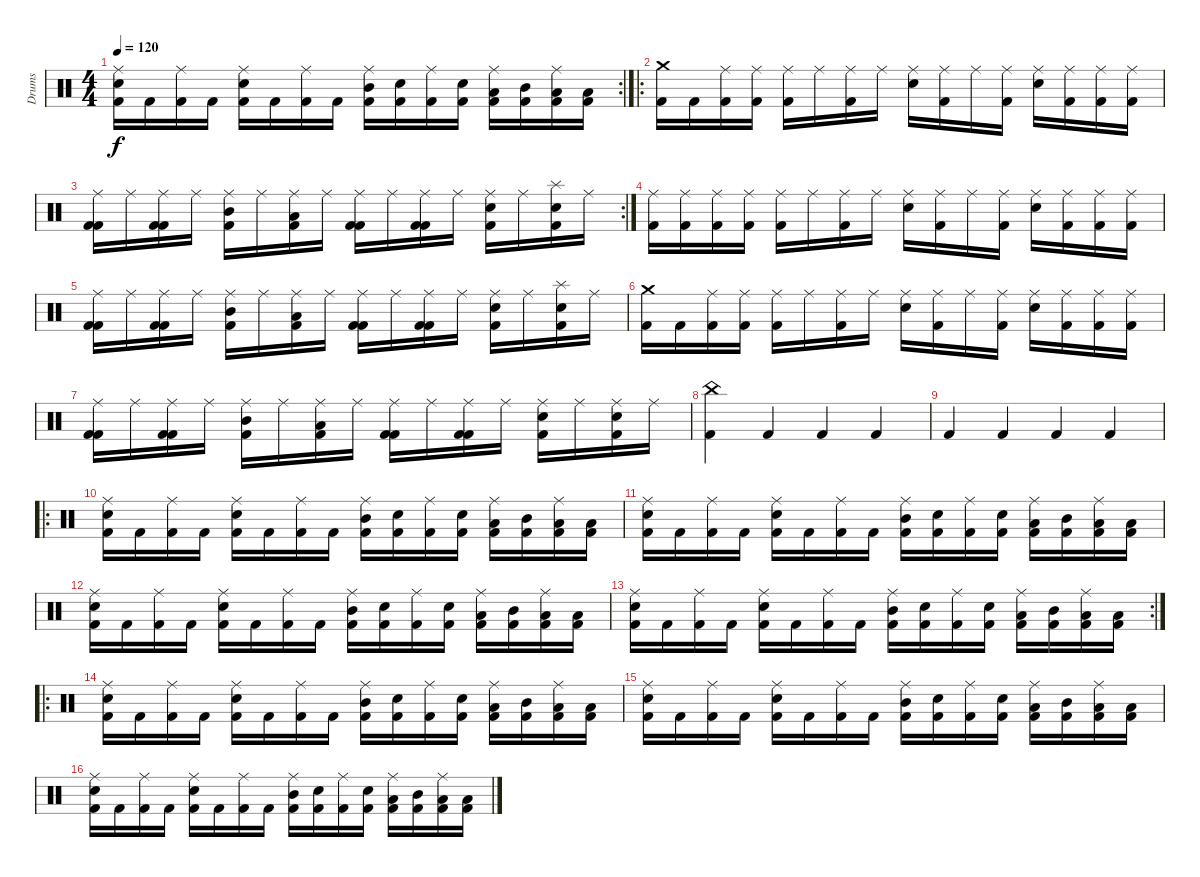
\track ("Drums" "Drums") {instrument percussion}
\staff {score}
\articulation defaults
\rc 2
\ts (4 4)
\tempo 120
\clef neutral
\ks c
("Ride (middle)" "Snare (hit) 2" "Kick (hit) 2").16{dy f} "Kick (hit) 2".16 ("Ride (middle)" "Kick (hit) 2").16 "Kick (hit) 2".16 ("Ride (middle)" "Snare (hit) 2" "Kick (hit) 2").16 "Kick (hit) 2".16 ("Ride (middle)" "Kick (hit) 2").16 "Kick (hit) 2".16 ("Ride (middle)" "Mid Tom (hit)" "Kick (hit) 2").16 ("Snare (hit) 2" "Kick (hit) 2").16 ("Ride (middle)" "Kick (hit) 2").16 ("Snare (hit) 2" "Kick (hit) 2").16 ("Ride (middle)" "Low Floor Tom (hit)" "Kick (hit) 2").16 ("Mid Tom (hit)" "Kick (hit) 2").16 ("Ride (middle)" "Low Tom (hit)" "Kick (hit) 2").16 ("Low Floor Tom (hit)" "Kick (hit) 2").16 |
\ro
("Crash medium (hit)" "Kick (hit) 2").16 "Kick (hit) 2".16 ("Ride (middle)" "Kick (hit) 2").16 ("Ride (middle)" "Kick (hit) 2").16 ("Ride (middle)" "Kick (hit) 2").16 "Ride (middle)".16 ("Ride (middle)" "Kick (hit) 2").16 "Ride (middle)".16 ("Ride (middle)" "Snare (hit) 2").16 ("Ride (middle)" "Kick (hit) 2").16 "Ride (middle)".16 ("Ride (middle)" "Kick (hit) 2").16 ("Ride (middle)" "Snare (hit) 2").16 ("Ride (middle)" "Kick (hit) 2").16 ("Ride (middle)" "Kick (hit) 2").16 ("Ride (middle)" "Kick (hit) 2").16 |
\rc 2
("Ride (middle)" "Kick (hit) 2" "Kick (hit) 2").16 "Ride (middle)".16 ("Ride (middle)" "Kick (hit) 2" "Kick (hit) 2").16 "Ride (middle)".16 ("Ride (middle)" "Kick (hit) 2" "Mid Tom (hit)").16 "Ride (middle)".16 ("Ride (middle)" "Kick (hit) 2" "Low Tom (hit)").16 "Ride (middle)".16 ("Ride (middle)" "Kick (hit) 2" "Kick (hit) 2").16 "Ride (middle)".16 ("Ride (middle)" "Kick (hit) 2" "Kick (hit) 2").16 "Ride (middle)".16 ("Ride (middle)" "Kick (hit) 2" "Snare (hit) 2").16 "Ride (middle)".16 ("Splash (hit)" "Kick (hit) 2" "Snare (hit) 2").16 "Ride (middle)".16 |
("Ride (middle)" "Kick (hit) 2").16 ("Ride (middle)" "Kick (hit) 2").16 ("Ride (middle)" "Kick (hit) 2").16 ("Ride (middle)" "Kick (hit) 2").16 ("Ride (middle)" "Kick (hit) 2").16 "Ride (middle)".16 ("Ride (middle)" "Kick (hit) 2").16 "Ride (middle)".16 ("Ride (middle)" "Snare (hit) 2").16 ("Ride (middle)" "Kick (hit) 2").16 "Ride (middle)".16 ("Ride (middle)" "Kick (hit) 2").16 ("Ride (middle)" "Snare (hit) 2").16 ("Ride (middle)" "Kick (hit) 2").16 ("Ride (middle)" "Kick (hit) 2").16 ("Ride (middle)" "Kick (hit) 2").16 |
("Ride (middle)" "Kick (hit) 2" "Kick (hit) 2").16 "Ride (middle)".16 ("Ride (middle)" "Kick (hit) 2" "Kick (hit) 2").16 "Ride (middle)".16 ("Ride (middle)" "Kick (hit) 2" "Mid Tom (hit)").16 "Ride (middle)".16 ("Ride (middle)" "Kick (hit) 2" "Low Tom (hit)").16 "Ride (middle)".16 ("Ride (middle)" "Kick (hit) 2" "Kick (hit) 2").16 "Ride (middle)".16 ("Ride (middle)" "Kick (hit) 2" "Kick (hit) 2").16 "Ride (middle)".16 ("Ride (middle)" "Kick (hit) 2" "Snare (hit) 2").16 "Ride (middle)".16 ("Splash (hit)" "Kick (hit) 2" "Snare (hit) 2").16 "Ride (middle)".16 |
("Crash medium (hit)" "Kick (hit) 2").16 "Kick (hit) 2".16 ("Ride (middle)" "Kick (hit) 2").16 ("Ride (middle)" "Kick (hit) 2").16 ("Ride (middle)" "Kick (hit) 2").16 "Ride (middle)".16 ("Ride (middle)" "Kick (hit) 2").16 "Ride (middle)".16 ("Ride (middle)" "Snare (hit) 2").16 ("Ride (middle)" "Kick (hit) 2").16 "Ride (middle)".16 ("Ride (middle)" "Kick (hit) 2").16 ("Ride (middle)" "Snare (hit) 2").16 ("Ride (middle)" "Kick (hit) 2").16 ("Ride (middle)" "Kick (hit) 2").16 ("Ride (middle)" "Kick (hit) 2").16 |
("Ride (middle)" "Kick (hit) 2" "Kick (hit) 2").16 "Ride (middle)".16 ("Ride (middle)" "Kick (hit) 2" "Kick (hit) 2").16 "Ride (middle)".16 ("Ride (middle)" "Kick (hit) 2" "Mid Tom (hit)").16 "Ride (middle)".16 ("Ride (middle)" "Kick (hit) 2" "Low Tom (hit)").16 "Ride (middle)".16 ("Ride (middle)" "Kick (hit) 2" "Kick (hit) 2").16 "Ride (middle)".16 ("Ride (middle)" "Kick (hit) 2" "Kick (hit) 2").16 "Ride (middle)".16 ("Ride (middle)" "Kick (hit) 2" "Snare (hit) 2").16 "Ride (middle)".16 ("Ride (middle)" "Kick (hit) 2" "Snare (hit) 2").16 "Ride (middle)".16 |
("China (hit)" "Kick (hit) 2").4 "Kick (hit) 2".4 "Kick (hit) 2".4 "Kick (hit) 2".4 |
"Kick (hit) 2".4 "Kick (hit) 2".4 "Kick (hit) 2".4 "Kick (hit) 2".4 |
\ro
("Ride (middle)" "Snare (hit) 2" "Kick (hit) 2").16 "Kick (hit) 2".16 ("Ride (middle)" "Kick (hit) 2").16 "Kick (hit) 2".16 ("Ride (middle)" "Snare (hit) 2" "Kick (hit) 2").16 "Kick (hit) 2".16 ("Ride (middle)" "Kick (hit) 2").16 "Kick (hit) 2".16 ("Ride (middle)" "Mid Tom (hit)" "Kick (hit) 2").16 ("Snare (hit) 2" "Kick (hit) 2").16 ("Ride (middle)" "Kick (hit) 2").16 ("Snare (hit) 2" "Kick (hit) 2").16 ("Ride (middle)" "Low Floor Tom (hit)" "Kick (hit) 2").16 ("Mid Tom (hit)" "Kick (hit) 2").16 ("Ride (middle)" "Low Tom (hit)" "Kick (hit) 2").16 ("Low Floor Tom (hit)" "Kick (hit) 2").16 |
("Ride (middle)" "Snare (hit) 2" "Kick (hit) 2").16 "Kick (hit) 2".16 ("Ride (middle)" "Kick (hit) 2").16 "Kick (hit) 2".16 ("Ride (middle)" "Snare (hit) 2" "Kick (hit) 2").16 "Kick (hit) 2".16 ("Ride (middle)" "Kick (hit) 2").16 "Kick (hit) 2".16 ("Ride (middle)" "Mid Tom (hit)" "Kick (hit) 2").16 ("Snare (hit) 2" "Kick (hit) 2").16 ("Ride (middle)" "Kick (hit) 2").16 ("Snare (hit) 2" "Kick (hit) 2").16 ("Ride (middle)" "Low Floor Tom (hit)" "Kick (hit) 2").16 ("Mid Tom (hit)" "Kick (hit) 2").16 ("Ride (middle)" "Low Tom (hit)" "Kick (hit) 2").16 ("Low Floor Tom (hit)" "Kick (hit) 2").16 |
("Ride (middle)" "Snare (hit) 2" "Kick (hit) 2").16 "Kick (hit) 2".16 ("Ride (middle)" "Kick (hit) 2").16 "Kick (hit) 2".16 ("Ride (middle)" "Snare (hit) 2" "Kick (hit) 2").16 "Kick (hit) 2".16 ("Ride (middle)" "Kick (hit) 2").16 "Kick (hit) 2".16 ("Ride (middle)" "Mid Tom (hit)" "Kick (hit) 2").16 ("Snare (hit) 2" "Kick (hit) 2").16 ("Ride (middle)" "Kick (hit) 2").16 ("Snare (hit) 2" "Kick (hit) 2").16 ("Ride (middle)" "Low Floor Tom (hit)" "Kick (hit) 2").16 ("Mid Tom (hit)" "Kick (hit) 2").16 ("Ride (middle)" "Low Tom (hit)" "Kick (hit) 2").16 ("Low Floor Tom (hit)" "Kick (hit) 2").16 |
\rc 2
("Ride (middle)" "Snare (hit) 2" "Kick (hit) 2").16 "Kick (hit) 2".16 ("Ride (middle)" "Kick (hit) 2").16 "Kick (hit) 2".16 ("Ride (middle)" "Snare (hit) 2" "Kick (hit) 2").16 "Kick (hit) 2".16 ("Ride (middle)" "Kick (hit) 2").16 "Kick (hit) 2".16 ("Ride (middle)" "Mid Tom (hit)" "Kick (hit) 2").16 ("Snare (hit) 2" "Kick (hit) 2").16 ("Ride (middle)" "Kick (hit) 2").16 ("Snare (hit) 2" "Kick (hit) 2").16 ("Ride (middle)" "Low Floor Tom (hit)" "Kick (hit) 2").16 ("Mid Tom (hit)" "Kick (hit) 2").16 ("Ride (middle)" "Low Tom (hit)" "Kick (hit) 2").16 ("Low Floor Tom (hit)" "Kick (hit) 2").16 |
\ro
("Ride (middle)" "Snare (hit) 2" "Kick (hit) 2").16 "Kick (hit) 2".16 ("Ride (middle)" "Kick (hit) 2").16 "Kick (hit) 2".16 ("Ride (middle)" "Snare (hit) 2" "Kick (hit) 2").16 "Kick (hit) 2".16 ("Ride (middle)" "Kick (hit) 2").16 "Kick (hit) 2".16 ("Ride (middle)" "Mid Tom (hit)" "Kick (hit) 2").16 ("Snare (hit) 2" "Kick (hit) 2").16 ("Ride (middle)" "Kick (hit) 2").16 ("Snare (hit) 2" "Kick (hit) 2").16 ("Ride (middle)" "Low Floor Tom (hit)" "Kick (hit) 2").16 ("Mid Tom (hit)" "Kick (hit) 2").16 ("Ride (middle)" "Low Tom (hit)" "Kick (hit) 2").16 ("Low Floor Tom (hit)" "Kick (hit) 2").16 |
("Ride (middle)" "Snare (hit) 2" "Kick (hit) 2").16 "Kick (hit) 2".16 ("Ride (middle)" "Kick (hit) 2").16 "Kick (hit) 2".16 ("Ride (middle)" "Snare (hit) 2" "Kick (hit) 2").16 "Kick (hit) 2".16 ("Ride (middle)" "Kick (hit) 2").16 "Kick (hit) 2".16 ("Ride (middle)" "Mid Tom (hit)" "Kick (hit) 2").16 ("Snare (hit) 2" "Kick (hit) 2").16 ("Ride (middle)" "Kick (hit) 2").16 ("Snare (hit) 2" "Kick (hit) 2").16 ("Ride (middle)" "Low Floor Tom (hit)" "Kick (hit) 2").16 ("Mid Tom (hit)" "Kick (hit) 2").16 ("Ride (middle)" "Low Tom (hit)" "Kick (hit) 2").16 ("Low Floor Tom (hit)" "Kick (hit) 2").16 |
("Ride (middle)" "Snare (hit) 2" "Kick (hit) 2").16 "Kick (hit) 2".16 ("Ride (middle)" "Kick (hit) 2").16 "Kick (hit) 2".16 ("Ride (middle)" "Snare (hit) 2" "Kick (hit) 2").16 "Kick (hit) 2".16 ("Ride (middle)" "Kick (hit) 2").16 "Kick (hit) 2".16 ("Ride (middle)" "Mid Tom (hit)" "Kick (hit) 2").16 ("Snare (hit) 2" "Kick (hit) 2").16 ("Ride (middle)" "Kick (hit) 2").16 ("Snare (hit) 2" "Kick (hit) 2").16 ("Ride (middle)" "Low Floor Tom (hit)" "Kick (hit) 2").16 ("Mid Tom (hit)" "Kick (hit) 2").16 ("Ride (middle)" "Low Tom (hit)" "Kick (hit) 2").16 ("Low Floor Tom (hit)" "Kick (hit) 2").16
